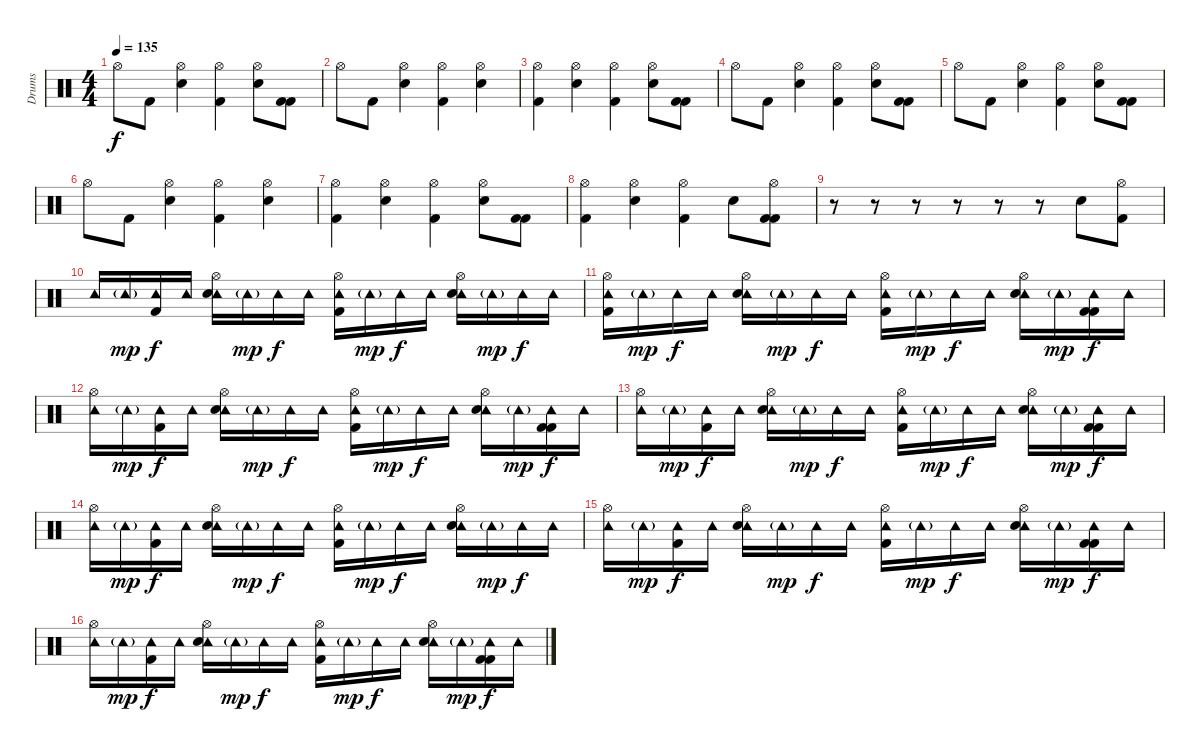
\track ("Drums" "Drums") {instrument percussion}
\staff {score}
\articulation defaults
\ts (4 4)
\tempo 135
\clef neutral
\ks c "Hi-Hat (open)".8{dy f} "Kick (hit) 2".8
("Hi-Hat (open)" "Electric Snare (hit)").4 ("Hi-Hat (open)" "Kick (hit) 2").4 ("Hi-Hat (open)" "Electric Snare (hit)").8 ("Kick (hit) 2" "Kick (hit) 2").8 |
"Hi-Hat (open)".8 "Kick (hit) 2".8 ("Hi-Hat (open)" "Electric Snare (hit)").4 ("Hi-Hat (open)" "Kick (hit) 2").4 ("Hi-Hat (open)" "Electric Snare (hit)").4 |
("Hi-Hat (open)" "Kick (hit) 2").4 ("Hi-Hat (open)" "Electric Snare (hit)").4 ("Hi-Hat (open)" "Kick (hit) 2").4 ("Hi-Hat (open)" "Electric Snare (hit)").8 ("Kick (hit) 2" "Kick (hit) 2").8 |
"Hi-Hat (open)".8 "Kick (hit) 2".8 ("Hi-Hat (open)" "Electric Snare (hit)").4 ("Hi-Hat (open)" "Kick (hit) 2").4 ("Hi-Hat (open)" "Electric Snare (hit)").8 ("Kick (hit) 2" "Kick (hit) 2").8 |
"Hi-Hat (open)".8 "Kick (hit) 2".8 ("Hi-Hat (open)" "Electric Snare (hit)").4 ("Hi-Hat (open)" "Kick (hit) 2").4 ("Hi-Hat (open)" "Electric Snare (hit)").8 ("Kick (hit) 2" "Kick (hit) 2").8 |
"Hi-Hat (open)".8 "Kick (hit) 2".8 ("Hi-Hat (open)" "Electric Snare (hit)").4 ("Hi-Hat (open)" "Kick (hit) 2").4 ("Hi-Hat (open)" "Electric Snare (hit)").4 |
("Hi-Hat (open)" "Kick (hit) 2").4 ("Hi-Hat (open)" "Electric Snare (hit)").4 ("Hi-Hat (open)" "Kick (hit) 2").4 ("Hi-Hat (open)" "Electric Snare (hit)").8 ("Kick (hit) 2" "Kick (hit) 2").8 |
("Hi-Hat (open)" "Kick (hit) 2").4 ("Hi-Hat (open)" "Electric Snare (hit)").4 ("Hi-Hat (open)" "Kick (hit) 2").4 "Electric Snare (hit)".8 ("Hi-Hat (open)" "Kick (hit) 2" "Kick (hit) 2").8 |
r.8 r.8 r.8 r.8 r.8 r.8 "Electric Snare (hit)".8 ("Hi-Hat (open)" "Kick (hit) 2").8 |
"Tambourine (hit)".16 "Tambourine (hit)"{g}.16{dy mp} ("Tambourine (hit)" "Kick (hit) 2").16{dy f} "Tambourine (hit)".16 ("Hi-Hat (open)" "Tambourine (hit)" "Electric Snare (hit)").16 "Tambourine (hit)"{g}.16{dy mp} "Tambourine (hit)".16{dy f} "Tambourine (hit)".16 ("Hi-Hat (open)" "Tambourine (hit)" "Kick (hit) 2").16 "Tambourine (hit)"{g}.16{dy mp} "Tambourine (hit)".16{dy f} "Tambourine (hit)".16 ("Hi-Hat (open)" "Tambourine (hit)" "Electric Snare (hit)").16 "Tambourine (hit)"{g}.16{dy mp} "Tambourine (hit)".16{dy f} "Tambourine (hit)".16 |
("Hi-Hat (open)" "Tambourine (hit)" "Kick (hit) 2").16 "Tambourine (hit)"{g}.16{dy mp} "Tambourine (hit)".16{dy f} "Tambourine (hit)".16 ("Hi-Hat (open)" "Tambourine (hit)" "Electric Snare (hit)").16 "Tambourine (hit)"{g}.16{dy mp} "Tambourine (hit)".16{dy f} "Tambourine (hit)".16 ("Hi-Hat (open)" "Tambourine (hit)" "Kick (hit) 2").16 "Tambourine (hit)"{g}.16{dy mp} "Tambourine (hit)".16{dy f} "Tambourine (hit)".16 ("Hi-Hat (open)" "Tambourine (hit)" "Electric Snare (hit)").16 "Tambourine (hit)"{g}.16{dy mp} ("Tambourine (hit)" "Kick (hit) 2" "Kick (hit) 2").16{dy f} "Tambourine (hit)".16 |
("Hi-Hat (open)" "Tambourine (hit)").16 "Tambourine (hit)"{g}.16{dy mp} ("Tambourine (hit)" "Kick (hit) 2").16{dy f} "Tambourine (hit)".16 ("Hi-Hat (open)" "Tambourine (hit)" "Electric Snare (hit)").16 "Tambourine (hit)"{g}.16{dy mp} "Tambourine (hit)".16{dy f} "Tambourine (hit)".16 ("Hi-Hat (open)" "Tambourine (hit)" "Kick (hit) 2").16 "Tambourine (hit)"{g}.16{dy mp} "Tambourine (hit)".16{dy f} "Tambourine (hit)".16 ("Hi-Hat (open)" "Tambourine (hit)" "Electric Snare (hit)").16 "Tambourine (hit)"{g}.16{dy mp} ("Tambourine (hit)" "Kick (hit) 2" "Kick (hit) 2").16{dy f} "Tambourine (hit)".16 |
("Hi-Hat (open)" "Tambourine (hit)").16 "Tambourine (hit)"{g}.16{dy mp} ("Tambourine (hit)" "Kick (hit) 2").16{dy f} "Tambourine (hit)".16 ("Hi-Hat (open)" "Tambourine (hit)" "Electric Snare (hit)").16 "Tambourine (hit)"{g}.16{dy mp} "Tambourine (hit)".16{dy f} "Tambourine (hit)".16 ("Hi-Hat (open)" "Tambourine (hit)" "Kick (hit) 2").16 "Tambourine (hit)"{g}.16{dy mp} "Tambourine (hit)".16{dy f} "Tambourine (hit)".16 ("Hi-Hat (open)" "Tambourine (hit)" "Electric Snare (hit)").16 "Tambourine (hit)"{g}.16{dy mp} ("Tambourine (hit)" "Kick (hit) 2" "Kick (hit) 2").16{dy f} "Tambourine (hit)".16 |
("Hi-Hat (open)" "Tambourine (hit)").16 "Tambourine (hit)"{g}.16{dy mp} ("Tambourine (hit)" "Kick (hit) 2").16{dy f} "Tambourine (hit)".16 ("Hi-Hat (open)" "Tambourine (hit)" "Electric Snare (hit)").16 "Tambourine (hit)"{g}.16{dy mp} "Tambourine (hit)".16{dy f} "Tambourine (hit)".16 ("Hi-Hat (open)" "Tambourine (hit)" "Kick (hit) 2").16 "Tambourine (hit)"{g}.16{dy mp} "Tambourine (hit)".16{dy f} "Tambourine (hit)".16 ("Hi-Hat (open)" "Tambourine (hit)" "Electric Snare (hit)").16 "Tambourine (hit)"{g}.16{dy mp} "Tambourine (hit)".16{dy f} "Tambourine (hit)".16 |
("Hi-Hat (open)" "Tambourine (hit)").16 "Tambourine (hit)"{g}.16{dy mp} ("Tambourine (hit)" "Kick (hit) 2").16{dy f} "Tambourine (hit)".16 ("Hi-Hat (open)" "Tambourine (hit)" "Electric Snare (hit)").16 "Tambourine (hit)"{g}.16{dy mp} "Tambourine (hit)".16{dy f} "Tambourine (hit)".16 ("Hi-Hat (open)" "Tambourine (hit)" "Kick (hit) 2").16 "Tambourine (hit)"{g}.16{dy mp} "Tambourine (hit)".16{dy f} "Tambourine (hit)".16 ("Hi-Hat (open)" "Tambourine (hit)" "Electric Snare (hit)").16 "Tambourine (hit)"{g}.16{dy mp} ("Tambourine (hit)" "Kick (hit) 2" "Kick (hit) 2").16{dy f} "Tambourine (hit)".16 |
("Hi-Hat (open)" "Tambourine (hit)").16 "Tambourine (hit)"{g}.16{dy mp} ("Tambourine (hit)" "Kick (hit) 2").16{dy f} "Tambourine (hit)".16 ("Hi-Hat (open)" "Tambourine (hit)" "Electric Snare (hit)").16 "Tambourine (hit)"{g}.16{dy mp} "Tambourine (hit)".16{dy f} "Tambourine (hit)".16 ("Hi-Hat (open)" "Tambourine (hit)" "Kick (hit) 2").16 "Tambourine (hit)"{g}.16{dy mp} "Tambourine (hit)".16{dy f} "Tambourine (hit)".16 ("Hi-Hat (open)" "Tambourine (hit)" "Electric Snare (hit)").16 "Tambourine (hit)"{g}.16{dy mp} ("Tambourine (hit)" "Kick (hit) 2" "Kick (hit) 2").16{dy f} "Tambourine (hit)".16
